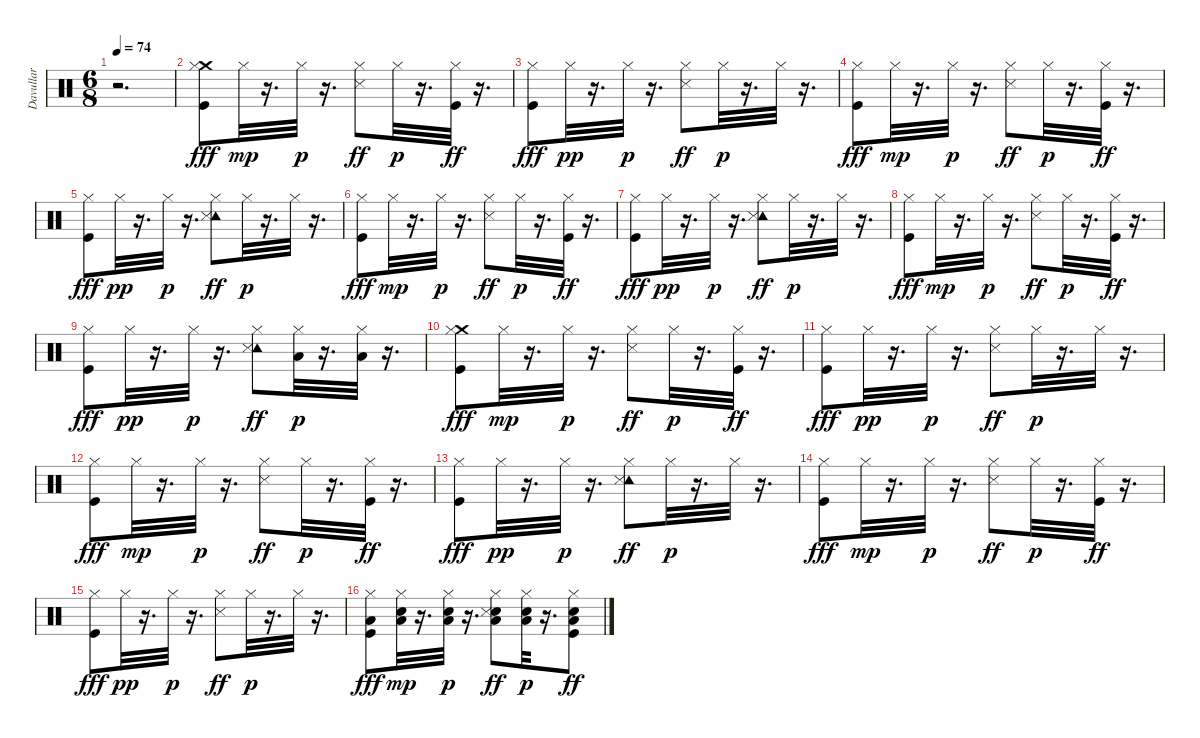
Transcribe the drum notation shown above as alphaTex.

\track ("Davullar" "Davullar") {instrument percussion}
\staff {score}
\articulation defaults
\ts (6 8)
\tempo 74
\clef neutral
\ks c
r.2{d dy ff} |
("Crash medium (hit)" "Hi-Hat (closed)" "Kick (hit)").8{dy fff} "Hi-Hat (closed)".32{dy mp} r.16{d} "Hi-Hat (closed)".32{dy p} r.16{d} ("Hi-Hat (closed)" "Snare (side stick) 3").8{dy ff} "Hi-Hat (closed)".32{dy p} r.16{d} ("Hi-Hat (closed)" "Kick (hit)").32{dy ff} r.16{d} |
("Hi-Hat (closed)" "Kick (hit)").8{dy fff} "Hi-Hat (closed)".32{dy pp} r.16{d} "Hi-Hat (closed)".32{dy p} r.16{d} ("Hi-Hat (closed)" "Snare (side stick) 3").8{dy ff} "Hi-Hat (closed)".32{dy p} r.16{d} "Hi-Hat (closed)".32 r.16{d} |
("Hi-Hat (closed)" "Kick (hit)").8{dy fff} "Hi-Hat (closed)".32{dy mp} r.16{d} "Hi-Hat (closed)".32{dy p} r.16{d} ("Hi-Hat (closed)" "Snare (side stick) 3").8{dy ff} "Hi-Hat (closed)".32{dy p} r.16{d} ("Hi-Hat (closed)" "Kick (hit)").32{dy ff} r.16{d} |
("Hi-Hat (closed)" "Kick (hit)").8{dy fff} "Hi-Hat (closed)".32{dy pp} r.16{d} "Hi-Hat (closed)".32{dy p} r.16{d} ("Tambourine (hit)" "Hi-Hat (closed)" "Snare (side stick) 3").8{dy ff} "Hi-Hat (closed)".32{dy p} r.16{d} "Hi-Hat (closed)".32 r.16{d} |
("Hi-Hat (closed)" "Kick (hit)").8{dy fff} "Hi-Hat (closed)".32{dy mp} r.16{d} "Hi-Hat (closed)".32{dy p} r.16{d} ("Hi-Hat (closed)" "Snare (side stick) 3").8{dy ff} "Hi-Hat (closed)".32{dy p} r.16{d} ("Hi-Hat (closed)" "Kick (hit)").32{dy ff} r.16{d} |
("Hi-Hat (closed)" "Kick (hit)").8{dy fff} "Hi-Hat (closed)".32{dy pp} r.16{d} "Hi-Hat (closed)".32{dy p} r.16{d} ("Tambourine (hit)" "Hi-Hat (closed)" "Snare (side stick) 3").8{dy ff} "Hi-Hat (closed)".32{dy p} r.16{d} "Hi-Hat (closed)".32 r.16{d} |
("Hi-Hat (closed)" "Kick (hit)").8{dy fff} "Hi-Hat (closed)".32{dy mp} r.16{d} "Hi-Hat (closed)".32{dy p} r.16{d} ("Hi-Hat (closed)" "Snare (side stick) 3").8{dy ff} "Hi-Hat (closed)".32{dy p} r.16{d} ("Hi-Hat (closed)" "Kick (hit)").32{dy ff} r.16{d} |
("Hi-Hat (closed)" "Kick (hit)").8{dy fff} "Hi-Hat (closed)".32{dy pp} r.16{d} "Hi-Hat (closed)".32{dy p} r.16{d} ("Tambourine (hit)" "Hi-Hat (closed)" "Snare (side stick) 3").8{dy ff} ("Low Tom (hit)" "Hi-Hat (closed)").32{dy p} r.16{d} ("Low Floor Tom (hit)" "Hi-Hat (closed)").32 r.16{d} |
("Crash medium (hit)" "Hi-Hat (closed)" "Kick (hit)").8{dy fff} "Hi-Hat (closed)".32{dy mp} r.16{d} "Hi-Hat (closed)".32{dy p} r.16{d} ("Hi-Hat (closed)" "Snare (side stick) 3").8{dy ff} "Hi-Hat (closed)".32{dy p} r.16{d} ("Hi-Hat (closed)" "Kick (hit)").32{dy ff} r.16{d} |
("Hi-Hat (closed)" "Kick (hit)").8{dy fff} "Hi-Hat (closed)".32{dy pp} r.16{d} "Hi-Hat (closed)".32{dy p} r.16{d} ("Hi-Hat (closed)" "Snare (side stick) 3").8{dy ff} "Hi-Hat (closed)".32{dy p} r.16{d} "Hi-Hat (closed)".32 r.16{d} |
("Hi-Hat (closed)" "Kick (hit)").8{dy fff} "Hi-Hat (closed)".32{dy mp} r.16{d} "Hi-Hat (closed)".32{dy p} r.16{d} ("Hi-Hat (closed)" "Snare (side stick) 3").8{dy ff} "Hi-Hat (closed)".32{dy p} r.16{d} ("Hi-Hat (closed)" "Kick (hit)").32{dy ff} r.16{d} |
("Hi-Hat (closed)" "Kick (hit)").8{dy fff} "Hi-Hat (closed)".32{dy pp} r.16{d} "Hi-Hat (closed)".32{dy p} r.16{d} ("Tambourine (hit)" "Hi-Hat (closed)" "Snare (side stick) 3").8{dy ff} "Hi-Hat (closed)".32{dy p} r.16{d} "Hi-Hat (closed)".32 r.16{d} |
("Hi-Hat (closed)" "Kick (hit)").8{dy fff} "Hi-Hat (closed)".32{dy mp} r.16{d} "Hi-Hat (closed)".32{dy p} r.16{d} ("Hi-Hat (closed)" "Snare (side stick) 3").8{dy ff} "Hi-Hat (closed)".32{dy p} r.16{d} ("Hi-Hat (closed)" "Kick (hit)").32{dy ff} r.16{d} |
("Hi-Hat (closed)" "Kick (hit)").8{dy fff} "Hi-Hat (closed)".32{dy pp} r.16{d} "Hi-Hat (closed)".32{dy p} r.16{d} ("Hi-Hat (closed)" "Snare (side stick) 3").8{dy ff} "Hi-Hat (closed)".32{dy p} r.16{d} "Hi-Hat (closed)".32 r.16{d} |
("Low Floor Tom (hit)" "Hi-Hat (closed)" "Kick (hit)").8{dy fff} ("Low Floor Tom (hit)" "Electric Snare (hit)" "Hi-Hat (closed)").32{dy mp} r.16{d} ("Low Floor Tom (hit)" "Electric Snare (hit)" "Hi-Hat (closed)").32{dy p} r.16{d} ("Low Floor Tom (hit)" "Electric Snare (hit)" "Hi-Hat (closed)" "Snare (side stick) 3").8{dy ff} ("Low Floor Tom (hit)" "Electric Snare (hit)" "Hi-Hat (closed)").32{dy p} r.16{d} ("Electric Snare (hit)" "Low Floor Tom (hit)" "Hi-Hat (closed)" "Kick (hit)").8{dy ff}
